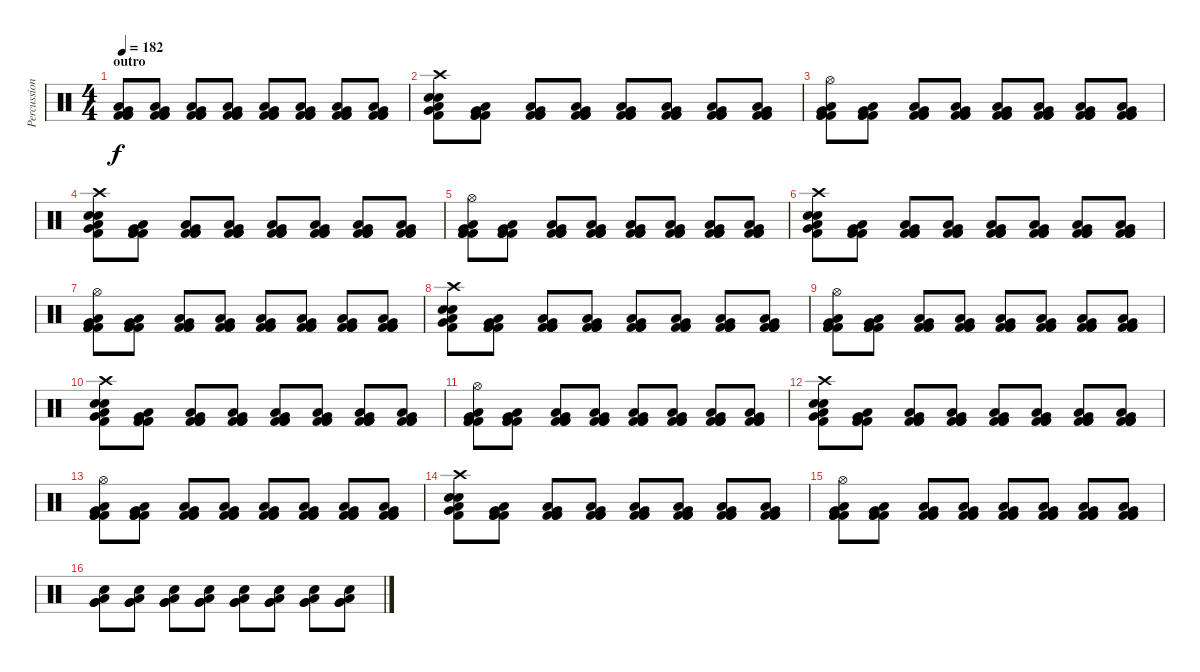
\track ("Percussions" "Percussion") {instrument percussion}
\staff {score}
\articulation defaults
\ts (4 4)
\section ("" "outro")
\tempo 182
\clef neutral
\ks c
("Low Floor Tom (hit)" "Kick (hit) 2" "Kick (hit) 2" "Very Low Tom (hit)" "Kick (hit) 2").8{dy f} ("Low Floor Tom (hit)" "Kick (hit) 2" "Kick (hit) 2" "Very Low Tom (hit)" "Kick (hit) 2").8 ("Low Floor Tom (hit)" "Kick (hit) 2" "Kick (hit) 2" "Very Low Tom (hit)" "Kick (hit) 2").8 ("Low Floor Tom (hit)" "Kick (hit) 2" "Kick (hit) 2" "Very Low Tom (hit)" "Kick (hit) 2").8 ("Low Floor Tom (hit)" "Kick (hit) 2" "Kick (hit) 2" "Very Low Tom (hit)" "Kick (hit) 2").8 ("Low Floor Tom (hit)" "Kick (hit) 2" "Kick (hit) 2" "Very Low Tom (hit)" "Kick (hit) 2").8 ("Low Floor Tom (hit)" "Kick (hit) 2" "Kick (hit) 2" "Very Low Tom (hit)" "Kick (hit) 2").8 ("Low Floor Tom (hit)" "Kick (hit) 2" "Kick (hit) 2" "Very Low Tom (hit)" "Kick (hit) 2").8 |
("Kick (hit) 2" "Low Floor Tom (hit)" "Electric Snare (hit)" "Electric Snare (hit)" "Very Low Tom (hit)" "Crash high (hit)").8 ("Low Floor Tom (hit)" "Kick (hit) 2" "Kick (hit) 2" "Very Low Tom (hit)" "Kick (hit) 2").8 ("Low Floor Tom (hit)" "Kick (hit) 2" "Kick (hit) 2" "Very Low Tom (hit)" "Kick (hit) 2").8 ("Low Floor Tom (hit)" "Kick (hit) 2" "Kick (hit) 2" "Very Low Tom (hit)" "Kick (hit) 2").8 ("Low Floor Tom (hit)" "Kick (hit) 2" "Kick (hit) 2" "Very Low Tom (hit)" "Kick (hit) 2").8 ("Low Floor Tom (hit)" "Kick (hit) 2" "Kick (hit) 2" "Very Low Tom (hit)" "Kick (hit) 2").8 ("Low Floor Tom (hit)" "Kick (hit) 2" "Kick (hit) 2" "Very Low Tom (hit)" "Kick (hit) 2").8 ("Low Floor Tom (hit)" "Kick (hit) 2" "Kick (hit) 2" "Very Low Tom (hit)" "Kick (hit) 2").8 |
("Hi-Hat (open)" "Low Floor Tom (hit)" "Kick (hit) 2" "Kick (hit) 2" "Very Low Tom (hit)" "Kick (hit) 2").8 ("Low Floor Tom (hit)" "Kick (hit) 2" "Kick (hit) 2" "Very Low Tom (hit)" "Kick (hit) 2").8 ("Low Floor Tom (hit)" "Kick (hit) 2" "Kick (hit) 2" "Very Low Tom (hit)" "Kick (hit) 2").8 ("Low Floor Tom (hit)" "Kick (hit) 2" "Kick (hit) 2" "Very Low Tom (hit)" "Kick (hit) 2").8 ("Low Floor Tom (hit)" "Kick (hit) 2" "Kick (hit) 2" "Very Low Tom (hit)" "Kick (hit) 2").8 ("Low Floor Tom (hit)" "Kick (hit) 2" "Kick (hit) 2" "Very Low Tom (hit)" "Kick (hit) 2").8 ("Low Floor Tom (hit)" "Kick (hit) 2" "Kick (hit) 2" "Very Low Tom (hit)" "Kick (hit) 2").8 ("Low Floor Tom (hit)" "Kick (hit) 2" "Kick (hit) 2" "Very Low Tom (hit)" "Kick (hit) 2").8 |
("Kick (hit) 2" "Low Floor Tom (hit)" "Electric Snare (hit)" "Electric Snare (hit)" "Very Low Tom (hit)" "Crash high (hit)").8 ("Low Floor Tom (hit)" "Kick (hit) 2" "Kick (hit) 2" "Very Low Tom (hit)" "Kick (hit) 2").8 ("Low Floor Tom (hit)" "Kick (hit) 2" "Kick (hit) 2" "Very Low Tom (hit)" "Kick (hit) 2").8 ("Low Floor Tom (hit)" "Kick (hit) 2" "Kick (hit) 2" "Very Low Tom (hit)" "Kick (hit) 2").8 ("Low Floor Tom (hit)" "Kick (hit) 2" "Kick (hit) 2" "Very Low Tom (hit)" "Kick (hit) 2").8 ("Low Floor Tom (hit)" "Kick (hit) 2" "Kick (hit) 2" "Very Low Tom (hit)" "Kick (hit) 2").8 ("Low Floor Tom (hit)" "Kick (hit) 2" "Kick (hit) 2" "Very Low Tom (hit)" "Kick (hit) 2").8 ("Low Floor Tom (hit)" "Kick (hit) 2" "Kick (hit) 2" "Very Low Tom (hit)" "Kick (hit) 2").8 |
("Hi-Hat (open)" "Low Floor Tom (hit)" "Kick (hit) 2" "Kick (hit) 2" "Very Low Tom (hit)" "Kick (hit) 2").8 ("Low Floor Tom (hit)" "Kick (hit) 2" "Kick (hit) 2" "Very Low Tom (hit)" "Kick (hit) 2").8 ("Low Floor Tom (hit)" "Kick (hit) 2" "Kick (hit) 2" "Very Low Tom (hit)" "Kick (hit) 2").8 ("Low Floor Tom (hit)" "Kick (hit) 2" "Kick (hit) 2" "Very Low Tom (hit)" "Kick (hit) 2").8 ("Low Floor Tom (hit)" "Kick (hit) 2" "Kick (hit) 2" "Very Low Tom (hit)" "Kick (hit) 2").8 ("Low Floor Tom (hit)" "Kick (hit) 2" "Kick (hit) 2" "Very Low Tom (hit)" "Kick (hit) 2").8 ("Low Floor Tom (hit)" "Kick (hit) 2" "Kick (hit) 2" "Very Low Tom (hit)" "Kick (hit) 2").8 ("Low Floor Tom (hit)" "Kick (hit) 2" "Kick (hit) 2" "Very Low Tom (hit)" "Kick (hit) 2").8 |
("Kick (hit) 2" "Low Floor Tom (hit)" "Electric Snare (hit)" "Electric Snare (hit)" "Very Low Tom (hit)" "Crash high (hit)").8 ("Low Floor Tom (hit)" "Kick (hit) 2" "Kick (hit) 2" "Very Low Tom (hit)" "Kick (hit) 2").8 ("Low Floor Tom (hit)" "Kick (hit) 2" "Kick (hit) 2" "Very Low Tom (hit)" "Kick (hit) 2").8 ("Low Floor Tom (hit)" "Kick (hit) 2" "Kick (hit) 2" "Very Low Tom (hit)" "Kick (hit) 2").8 ("Low Floor Tom (hit)" "Kick (hit) 2" "Kick (hit) 2" "Very Low Tom (hit)" "Kick (hit) 2").8 ("Low Floor Tom (hit)" "Kick (hit) 2" "Kick (hit) 2" "Very Low Tom (hit)" "Kick (hit) 2").8 ("Low Floor Tom (hit)" "Kick (hit) 2" "Kick (hit) 2" "Very Low Tom (hit)" "Kick (hit) 2").8 ("Low Floor Tom (hit)" "Kick (hit) 2" "Kick (hit) 2" "Very Low Tom (hit)" "Kick (hit) 2").8 |
("Hi-Hat (open)" "Low Floor Tom (hit)" "Kick (hit) 2" "Kick (hit) 2" "Very Low Tom (hit)" "Kick (hit) 2").8 ("Low Floor Tom (hit)" "Kick (hit) 2" "Kick (hit) 2" "Very Low Tom (hit)" "Kick (hit) 2").8 ("Low Floor Tom (hit)" "Kick (hit) 2" "Kick (hit) 2" "Very Low Tom (hit)" "Kick (hit) 2").8 ("Low Floor Tom (hit)" "Kick (hit) 2" "Kick (hit) 2" "Very Low Tom (hit)" "Kick (hit) 2").8 ("Low Floor Tom (hit)" "Kick (hit) 2" "Kick (hit) 2" "Very Low Tom (hit)" "Kick (hit) 2").8 ("Low Floor Tom (hit)" "Kick (hit) 2" "Kick (hit) 2" "Very Low Tom (hit)" "Kick (hit) 2").8 ("Low Floor Tom (hit)" "Kick (hit) 2" "Kick (hit) 2" "Very Low Tom (hit)" "Kick (hit) 2").8 ("Low Floor Tom (hit)" "Kick (hit) 2" "Kick (hit) 2" "Very Low Tom (hit)" "Kick (hit) 2").8 |
("Kick (hit) 2" "Low Floor Tom (hit)" "Electric Snare (hit)" "Electric Snare (hit)" "Very Low Tom (hit)" "Crash high (hit)").8 ("Low Floor Tom (hit)" "Kick (hit) 2" "Kick (hit) 2" "Very Low Tom (hit)" "Kick (hit) 2").8 ("Low Floor Tom (hit)" "Kick (hit) 2" "Kick (hit) 2" "Very Low Tom (hit)" "Kick (hit) 2").8 ("Low Floor Tom (hit)" "Kick (hit) 2" "Kick (hit) 2" "Very Low Tom (hit)" "Kick (hit) 2").8 ("Low Floor Tom (hit)" "Kick (hit) 2" "Kick (hit) 2" "Very Low Tom (hit)" "Kick (hit) 2").8 ("Low Floor Tom (hit)" "Kick (hit) 2" "Kick (hit) 2" "Very Low Tom (hit)" "Kick (hit) 2").8 ("Low Floor Tom (hit)" "Kick (hit) 2" "Kick (hit) 2" "Very Low Tom (hit)" "Kick (hit) 2").8 ("Low Floor Tom (hit)" "Kick (hit) 2" "Kick (hit) 2" "Very Low Tom (hit)" "Kick (hit) 2").8 |
("Hi-Hat (open)" "Low Floor Tom (hit)" "Kick (hit) 2" "Kick (hit) 2" "Very Low Tom (hit)" "Kick (hit) 2").8 ("Low Floor Tom (hit)" "Kick (hit) 2" "Kick (hit) 2" "Very Low Tom (hit)" "Kick (hit) 2").8 ("Low Floor Tom (hit)" "Kick (hit) 2" "Kick (hit) 2" "Very Low Tom (hit)" "Kick (hit) 2").8 ("Low Floor Tom (hit)" "Kick (hit) 2" "Kick (hit) 2" "Very Low Tom (hit)" "Kick (hit) 2").8 ("Low Floor Tom (hit)" "Kick (hit) 2" "Kick (hit) 2" "Very Low Tom (hit)" "Kick (hit) 2").8 ("Low Floor Tom (hit)" "Kick (hit) 2" "Kick (hit) 2" "Very Low Tom (hit)" "Kick (hit) 2").8 ("Low Floor Tom (hit)" "Kick (hit) 2" "Kick (hit) 2" "Very Low Tom (hit)" "Kick (hit) 2").8 ("Low Floor Tom (hit)" "Kick (hit) 2" "Kick (hit) 2" "Very Low Tom (hit)" "Kick (hit) 2").8 |
("Kick (hit) 2" "Low Floor Tom (hit)" "Electric Snare (hit)" "Electric Snare (hit)" "Very Low Tom (hit)" "Crash high (hit)").8 ("Low Floor Tom (hit)" "Kick (hit) 2" "Kick (hit) 2" "Very Low Tom (hit)" "Kick (hit) 2").8 ("Low Floor Tom (hit)" "Kick (hit) 2" "Kick (hit) 2" "Very Low Tom (hit)" "Kick (hit) 2").8 ("Low Floor Tom (hit)" "Kick (hit) 2" "Kick (hit) 2" "Very Low Tom (hit)" "Kick (hit) 2").8 ("Low Floor Tom (hit)" "Kick (hit) 2" "Kick (hit) 2" "Very Low Tom (hit)" "Kick (hit) 2").8 ("Low Floor Tom (hit)" "Kick (hit) 2" "Kick (hit) 2" "Very Low Tom (hit)" "Kick (hit) 2").8 ("Low Floor Tom (hit)" "Kick (hit) 2" "Kick (hit) 2" "Very Low Tom (hit)" "Kick (hit) 2").8 ("Low Floor Tom (hit)" "Kick (hit) 2" "Kick (hit) 2" "Very Low Tom (hit)" "Kick (hit) 2").8 |
("Hi-Hat (open)" "Low Floor Tom (hit)" "Kick (hit) 2" "Kick (hit) 2" "Very Low Tom (hit)" "Kick (hit) 2").8 ("Low Floor Tom (hit)" "Kick (hit) 2" "Kick (hit) 2" "Very Low Tom (hit)" "Kick (hit) 2").8 ("Low Floor Tom (hit)" "Kick (hit) 2" "Kick (hit) 2" "Very Low Tom (hit)" "Kick (hit) 2").8 ("Low Floor Tom (hit)" "Kick (hit) 2" "Kick (hit) 2" "Very Low Tom (hit)" "Kick (hit) 2").8 ("Low Floor Tom (hit)" "Kick (hit) 2" "Kick (hit) 2" "Very Low Tom (hit)" "Kick (hit) 2").8 ("Low Floor Tom (hit)" "Kick (hit) 2" "Kick (hit) 2" "Very Low Tom (hit)" "Kick (hit) 2").8 ("Low Floor Tom (hit)" "Kick (hit) 2" "Kick (hit) 2" "Very Low Tom (hit)" "Kick (hit) 2").8 ("Low Floor Tom (hit)" "Kick (hit) 2" "Kick (hit) 2" "Very Low Tom (hit)" "Kick (hit) 2").8 |
("Kick (hit) 2" "Low Floor Tom (hit)" "Electric Snare (hit)" "Electric Snare (hit)" "Very Low Tom (hit)" "Crash high (hit)").8 ("Low Floor Tom (hit)" "Kick (hit) 2" "Kick (hit) 2" "Very Low Tom (hit)" "Kick (hit) 2").8 ("Low Floor Tom (hit)" "Kick (hit) 2" "Kick (hit) 2" "Very Low Tom (hit)" "Kick (hit) 2").8 ("Low Floor Tom (hit)" "Kick (hit) 2" "Kick (hit) 2" "Very Low Tom (hit)" "Kick (hit) 2").8 ("Low Floor Tom (hit)" "Kick (hit) 2" "Kick (hit) 2" "Very Low Tom (hit)" "Kick (hit) 2").8 ("Low Floor Tom (hit)" "Kick (hit) 2" "Kick (hit) 2" "Very Low Tom (hit)" "Kick (hit) 2").8 ("Low Floor Tom (hit)" "Kick (hit) 2" "Kick (hit) 2" "Very Low Tom (hit)" "Kick (hit) 2").8 ("Low Floor Tom (hit)" "Kick (hit) 2" "Kick (hit) 2" "Very Low Tom (hit)" "Kick (hit) 2").8 |
("Hi-Hat (open)" "Low Floor Tom (hit)" "Kick (hit) 2" "Kick (hit) 2" "Very Low Tom (hit)" "Kick (hit) 2").8 ("Low Floor Tom (hit)" "Kick (hit) 2" "Kick (hit) 2" "Very Low Tom (hit)" "Kick (hit) 2").8 ("Low Floor Tom (hit)" "Kick (hit) 2" "Kick (hit) 2" "Very Low Tom (hit)" "Kick (hit) 2").8 ("Low Floor Tom (hit)" "Kick (hit) 2" "Kick (hit) 2" "Very Low Tom (hit)" "Kick (hit) 2").8 ("Low Floor Tom (hit)" "Kick (hit) 2" "Kick (hit) 2" "Very Low Tom (hit)" "Kick (hit) 2").8 ("Low Floor Tom (hit)" "Kick (hit) 2" "Kick (hit) 2" "Very Low Tom (hit)" "Kick (hit) 2").8 ("Low Floor Tom (hit)" "Kick (hit) 2" "Kick (hit) 2" "Very Low Tom (hit)" "Kick (hit) 2").8 ("Low Floor Tom (hit)" "Kick (hit) 2" "Kick (hit) 2" "Very Low Tom (hit)" "Kick (hit) 2").8 |
("Kick (hit) 2" "Low Floor Tom (hit)" "Electric Snare (hit)" "Electric Snare (hit)" "Very Low Tom (hit)" "Crash high (hit)").8 ("Low Floor Tom (hit)" "Kick (hit) 2" "Kick (hit) 2" "Very Low Tom (hit)" "Kick (hit) 2").8 ("Low Floor Tom (hit)" "Kick (hit) 2" "Kick (hit) 2" "Very Low Tom (hit)" "Kick (hit) 2").8 ("Low Floor Tom (hit)" "Kick (hit) 2" "Kick (hit) 2" "Very Low Tom (hit)" "Kick (hit) 2").8 ("Low Floor Tom (hit)" "Kick (hit) 2" "Kick (hit) 2" "Very Low Tom (hit)" "Kick (hit) 2").8 ("Low Floor Tom (hit)" "Kick (hit) 2" "Kick (hit) 2" "Very Low Tom (hit)" "Kick (hit) 2").8 ("Low Floor Tom (hit)" "Kick (hit) 2" "Kick (hit) 2" "Very Low Tom (hit)" "Kick (hit) 2").8 ("Low Floor Tom (hit)" "Kick (hit) 2" "Kick (hit) 2" "Very Low Tom (hit)" "Kick (hit) 2").8 |
("Hi-Hat (open)" "Low Floor Tom (hit)" "Kick (hit) 2" "Kick (hit) 2" "Very Low Tom (hit)" "Kick (hit) 2").8 ("Low Floor Tom (hit)" "Kick (hit) 2" "Kick (hit) 2" "Very Low Tom (hit)" "Kick (hit) 2").8 ("Low Floor Tom (hit)" "Kick (hit) 2" "Kick (hit) 2" "Very Low Tom (hit)" "Kick (hit) 2").8 ("Low Floor Tom (hit)" "Kick (hit) 2" "Kick (hit) 2" "Very Low Tom (hit)" "Kick (hit) 2").8 ("Low Floor Tom (hit)" "Kick (hit) 2" "Kick (hit) 2" "Very Low Tom (hit)" "Kick (hit) 2").8 ("Low Floor Tom (hit)" "Kick (hit) 2" "Kick (hit) 2" "Very Low Tom (hit)" "Kick (hit) 2").8 ("Low Floor Tom (hit)" "Kick (hit) 2" "Kick (hit) 2" "Very Low Tom (hit)" "Kick (hit) 2").8 ("Low Floor Tom (hit)" "Kick (hit) 2" "Kick (hit) 2" "Very Low Tom (hit)" "Kick (hit) 2").8 |
("Low Floor Tom (hit)" "Very Low Tom (hit)" "Very Low Tom (hit)" "Electric Snare (hit)").8 ("Low Floor Tom (hit)" "Very Low Tom (hit)" "Very Low Tom (hit)" "Electric Snare (hit)").8 ("Low Floor Tom (hit)" "Very Low Tom (hit)" "Very Low Tom (hit)" "Electric Snare (hit)").8 ("Low Floor Tom (hit)" "Very Low Tom (hit)" "Very Low Tom (hit)" "Electric Snare (hit)").8 ("Low Floor Tom (hit)" "Very Low Tom (hit)" "Very Low Tom (hit)" "Electric Snare (hit)").8 ("Low Floor Tom (hit)" "Very Low Tom (hit)" "Very Low Tom (hit)" "Electric Snare (hit)").8 ("Low Floor Tom (hit)" "Very Low Tom (hit)" "Very Low Tom (hit)" "Electric Snare (hit)").8 ("Low Floor Tom (hit)" "Very Low Tom (hit)" "Very Low Tom (hit)" "Electric Snare (hit)").8
